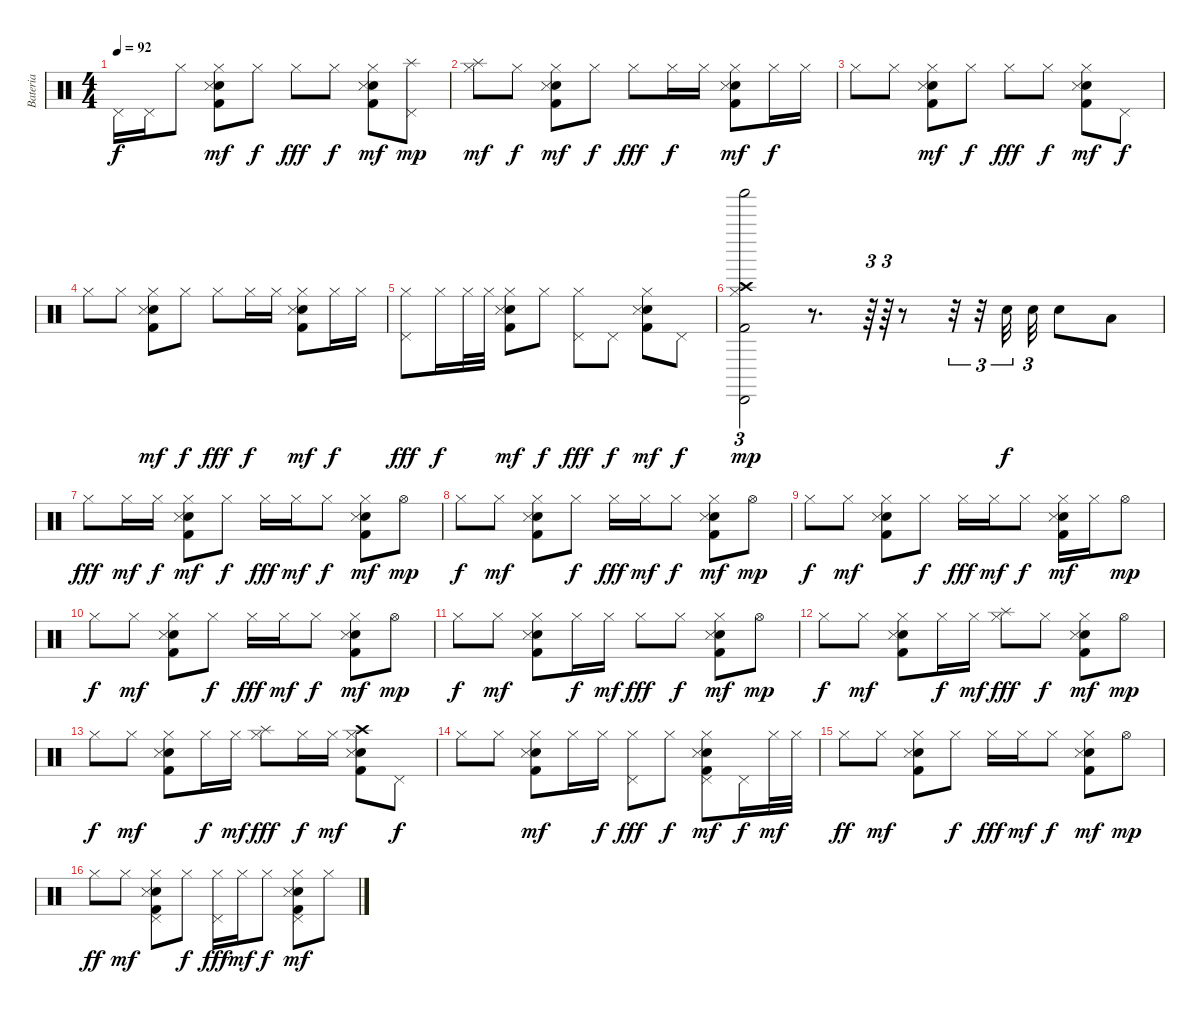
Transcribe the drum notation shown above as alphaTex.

\track ("Bateria" "Bateria") {instrument percussion}
\staff {score}
\articulation defaults
\ts (4 4)
\tempo 92
\clef neutral
\ks c "Pedal Hi-Hat (hit)".16{dy f} "Pedal Hi-Hat (hit)".16 "Hi-Hat (closed)".8
("Hi-Hat (closed)" "Electric Snare (hit)" "Snare (side stick) 3" "Kick (hit) 2").8{dy mf} "Hi-Hat (closed)".8{dy f} "Hi-Hat (closed)".8{dy fff} "Hi-Hat (closed)".8{dy f} ("Hi-Hat (closed)" "Electric Snare (hit)" "Snare (side stick) 3" "Kick (hit) 2").8{dy mf} ("Splash (hit)" "Pedal Hi-Hat (hit)").8{dy mp} |
("Splash (hit)" "Hi-Hat (closed)").8{dy mf} "Hi-Hat (closed)".8{dy f} ("Hi-Hat (closed)" "Electric Snare (hit)" "Snare (side stick) 3" "Kick (hit) 2").8{dy mf} "Hi-Hat (closed)".8{dy f} "Hi-Hat (closed)".8{dy fff} "Hi-Hat (closed)".16{dy f} "Hi-Hat (closed)".16 ("Hi-Hat (closed)" "Electric Snare (hit)" "Snare (side stick) 3" "Kick (hit) 2").8{dy mf} "Hi-Hat (closed)".16{dy f} "Hi-Hat (closed)".16 |
"Hi-Hat (closed)".8 "Hi-Hat (closed)".8 ("Hi-Hat (closed)" "Electric Snare (hit)" "Snare (side stick) 3" "Kick (hit) 2").8{dy mf} "Hi-Hat (closed)".8{dy f} "Hi-Hat (closed)".8{dy fff} "Hi-Hat (closed)".8{dy f} ("Hi-Hat (closed)" "Electric Snare (hit)" "Snare (side stick) 3" "Kick (hit) 2").8{dy mf} "Pedal Hi-Hat (hit)".8{dy f} |
"Hi-Hat (closed)".8 "Hi-Hat (closed)".8 ("Hi-Hat (closed)" "Electric Snare (hit)" "Snare (side stick) 3" "Kick (hit) 2").8{dy mf} "Hi-Hat (closed)".8{dy f} "Hi-Hat (closed)".8{dy fff} "Hi-Hat (closed)".16{dy f} "Hi-Hat (closed)".16 ("Hi-Hat (closed)" "Electric Snare (hit)" "Snare (side stick) 3" "Kick (hit) 2").8{dy mf} "Hi-Hat (closed)".16{dy f} "Hi-Hat (closed)".16 |
("Hi-Hat (closed)" "Pedal Hi-Hat (hit)").8{dy fff} "Hi-Hat (closed)".16{dy f} "Hi-Hat (closed)".32 "Hi-Hat (closed)".32 ("Hi-Hat (closed)" "Electric Snare (hit)" "Snare (side stick) 3" "Kick (hit) 2").8{dy mf} "Hi-Hat (closed)".8{dy f} ("Hi-Hat (closed)" "Pedal Hi-Hat (hit)").8{dy fff} "Pedal Hi-Hat (hit)".8{dy f} ("Hi-Hat (closed)" "Electric Snare (hit)" "Snare (side stick) 3" "Kick (hit) 2").8{dy mf} "Pedal Hi-Hat (hit)".8{dy f} |
("Hi-Hat (closed)" "Cabasa (hit)" "Shaker (hit)" "Crash high (hit)" "Kick (hit) 2").2{tu (3 2) dy mp} r.8{d} r.64{tu (3 2)} r.64{tu (3 2)} r.8 r.32{tu (3 2)} r.32{tu (3 2)} "Electric Snare (hit)".32{tu (3 2) dy f} "Electric Snare (hit)".32{tu (3 2)} "Electric Snare (hit)".8 "Low Tom (hit)".8 |
"Hi-Hat (closed)".8{dy fff} "Hi-Hat (closed)".16{dy mf} "Hi-Hat (closed)".16{dy f} ("Hi-Hat (closed)" "Electric Snare (hit)" "Snare (side stick) 3" "Kick (hit) 2").8{dy mf} "Hi-Hat (closed)".8{dy f} "Hi-Hat (closed)".16{dy fff} "Hi-Hat (closed)".16{dy mf} "Hi-Hat (closed)".8{dy f} ("Hi-Hat (closed)" "Electric Snare (hit)" "Snare (side stick) 3" "Kick (hit) 2").8{dy mf} "Hi-Hat (open)".8{dy mp} |
"Hi-Hat (closed)".8{dy f} "Hi-Hat (closed)".8{dy mf} ("Hi-Hat (closed)" "Electric Snare (hit)" "Snare (side stick) 3" "Kick (hit) 2").8 "Hi-Hat (closed)".8{dy f} "Hi-Hat (closed)".16{dy fff} "Hi-Hat (closed)".16{dy mf} "Hi-Hat (closed)".8{dy f} ("Hi-Hat (closed)" "Electric Snare (hit)" "Snare (side stick) 3" "Kick (hit) 2").8{dy mf} "Hi-Hat (open)".8{dy mp} |
"Hi-Hat (closed)".8{dy f} "Hi-Hat (closed)".8{dy mf} ("Hi-Hat (closed)" "Electric Snare (hit)" "Snare (side stick) 3" "Kick (hit) 2").8 "Hi-Hat (closed)".8{dy f} "Hi-Hat (closed)".16{dy fff} "Hi-Hat (closed)".16{dy mf} "Hi-Hat (closed)".8{dy f} ("Hi-Hat (closed)" "Electric Snare (hit)" "Snare (side stick) 3" "Kick (hit) 2").16{dy mf} "Hi-Hat (closed)".16 "Hi-Hat (open)".8{dy mp} |
"Hi-Hat (closed)".8{dy f} "Hi-Hat (closed)".8{dy mf} ("Hi-Hat (closed)" "Electric Snare (hit)" "Snare (side stick) 3" "Kick (hit) 2").8 "Hi-Hat (closed)".8{dy f} "Hi-Hat (closed)".16{dy fff} "Hi-Hat (closed)".16{dy mf} "Hi-Hat (closed)".8{dy f} ("Hi-Hat (closed)" "Electric Snare (hit)" "Snare (side stick) 3" "Kick (hit) 2").8{dy mf} "Hi-Hat (open)".8{dy mp} |
"Hi-Hat (closed)".8{dy f} "Hi-Hat (closed)".8{dy mf} ("Hi-Hat (closed)" "Electric Snare (hit)" "Snare (side stick) 3" "Kick (hit) 2").8 "Hi-Hat (closed)".16{dy f} "Hi-Hat (closed)".16{dy mf} "Hi-Hat (closed)".8{dy fff} "Hi-Hat (closed)".8{dy f} ("Hi-Hat (closed)" "Electric Snare (hit)" "Snare (side stick) 3" "Kick (hit) 2").8{dy mf} "Hi-Hat (open)".8{dy mp} |
"Hi-Hat (closed)".8{dy f} "Hi-Hat (closed)".8{dy mf} ("Hi-Hat (closed)" "Electric Snare (hit)" "Snare (side stick) 3" "Kick (hit) 2").8 "Hi-Hat (closed)".16{dy f} "Hi-Hat (closed)".16{dy mf} ("Splash (hit)" "Hi-Hat (closed)").8{dy fff} "Hi-Hat (closed)".8{dy f} ("Hi-Hat (closed)" "Electric Snare (hit)" "Snare (side stick) 3" "Kick (hit) 2").8{dy mf} "Hi-Hat (open)".8{dy mp} |
"Hi-Hat (closed)".8{dy f} "Hi-Hat (closed)".8{dy mf} ("Hi-Hat (closed)" "Electric Snare (hit)" "Snare (side stick) 3" "Kick (hit) 2").8 "Hi-Hat (closed)".16{dy f} "Hi-Hat (closed)".16{dy mf} ("Splash (hit)" "Hi-Hat (closed)").8{dy fff} "Hi-Hat (closed)".16{dy f} "Hi-Hat (closed)".16{dy mf} ("Crash high (hit)" "Hi-Hat (closed)" "Electric Snare (hit)" "Snare (side stick) 3" "Kick (hit) 2").8 "Pedal Hi-Hat (hit)".8{dy f} |
"Hi-Hat (closed)".8 "Hi-Hat (closed)".8 ("Hi-Hat (closed)" "Electric Snare (hit)" "Snare (side stick) 3" "Kick (hit) 2").8{dy mf} "Hi-Hat (closed)".16 "Hi-Hat (closed)".16{dy f} ("Pedal Hi-Hat (hit)" "Hi-Hat (closed)").8{dy fff} "Hi-Hat (closed)".8{dy f} ("Pedal Hi-Hat (hit)" "Hi-Hat (closed)" "Electric Snare (hit)" "Snare (side stick) 3" "Kick (hit) 2").8{dy mf} "Pedal Hi-Hat (hit)".16{dy f} "Hi-Hat (closed)".32{dy mf} "Hi-Hat (closed)".32 |
"Hi-Hat (closed)".8{dy ff} "Hi-Hat (closed)".8{dy mf} ("Hi-Hat (closed)" "Electric Snare (hit)" "Snare (side stick) 3" "Kick (hit) 2").8 "Hi-Hat (closed)".8{dy f} "Hi-Hat (closed)".16{dy fff} "Hi-Hat (closed)".16{dy mf} "Hi-Hat (closed)".8{dy f} ("Hi-Hat (closed)" "Electric Snare (hit)" "Snare (side stick) 3" "Kick (hit) 2").8{dy mf} "Hi-Hat (open)".8{dy mp} |
"Hi-Hat (closed)".8{dy ff} "Hi-Hat (closed)".8{dy mf} ("Pedal Hi-Hat (hit)" "Hi-Hat (closed)" "Electric Snare (hit)" "Snare (side stick) 3" "Kick (hit) 2").8 "Hi-Hat (closed)".8{dy f} ("Pedal Hi-Hat (hit)" "Hi-Hat (closed)").16{dy fff} "Hi-Hat (closed)".16{dy mf} "Hi-Hat (closed)".8{dy f} ("Pedal Hi-Hat (hit)" "Hi-Hat (closed)" "Electric Snare (hit)" "Snare (side stick) 3" "Kick (hit) 2").8{dy mf} "Hi-Hat (closed)".8
